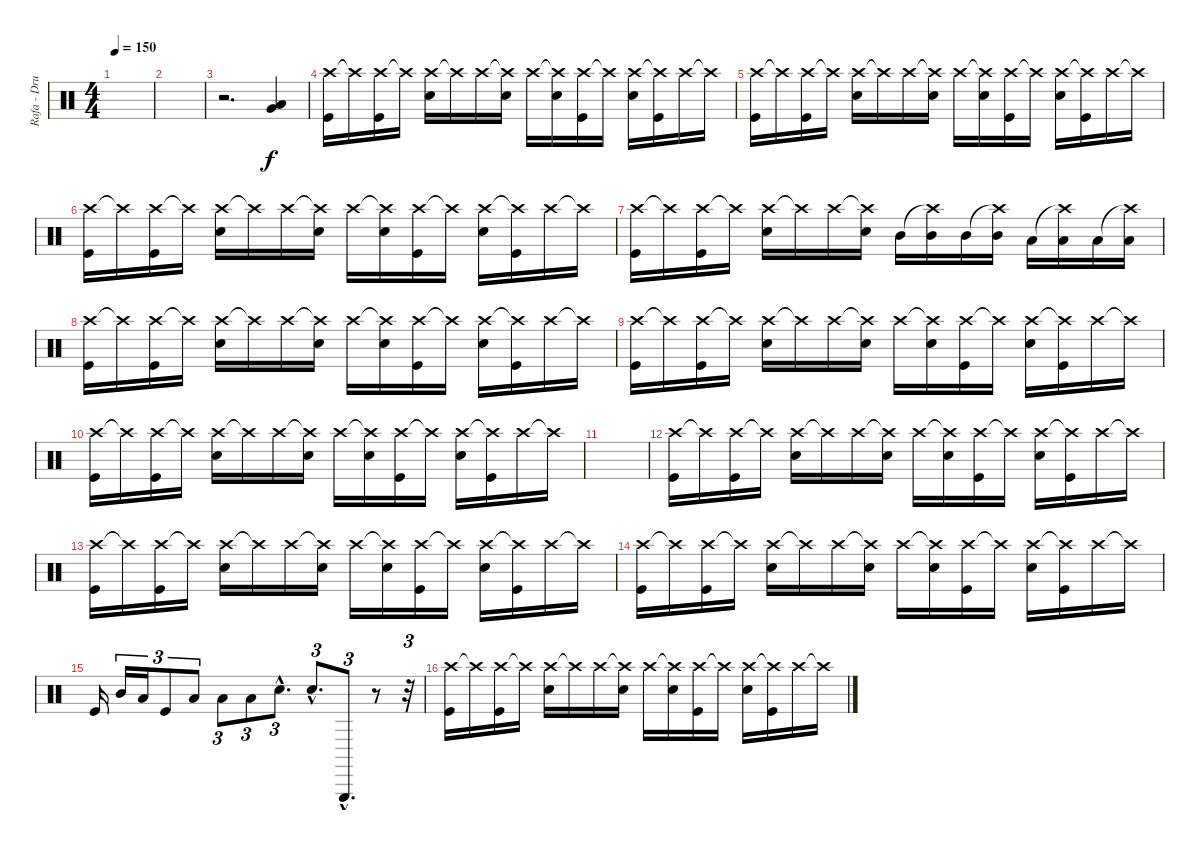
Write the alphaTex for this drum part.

\track ("Rafa - Drums" "Rafa - Dru") {instrument percussion}
\staff {score}
\articulation defaults
\ts (4 4)
\tempo 150
\clef neutral
\ks c
|
|
r.2{d} ("Very Low Tom (hit)" "Low Floor Tom (hit)").4{dy f} |
("Crash high (hit)" "Kick (hit)").16 "Crash high (hit)"{t}.16 ("Crash high (hit)" "Kick (hit)").16 "Crash high (hit)"{t}.16 ("Crash high (hit)" "Electric Snare (hit)").16 "Crash high (hit)"{t}.16 "Crash high (hit)".16 ("Crash high (hit)"{t} "Electric Snare (hit)").16 "Crash high (hit)".16 ("Crash high (hit)"{t} "Electric Snare (hit)").16 ("Crash high (hit)" "Kick (hit)").16 "Crash high (hit)"{t}.16 ("Crash high (hit)" "Electric Snare (hit)").16 ("Crash high (hit)"{t} "Kick (hit)").16 "Crash high (hit)".16 "Crash high (hit)"{t}.16 |
("Crash high (hit)" "Kick (hit)").16 "Crash high (hit)"{t}.16 ("Crash high (hit)" "Kick (hit)").16 "Crash high (hit)"{t}.16 ("Crash high (hit)" "Electric Snare (hit)").16 "Crash high (hit)"{t}.16 "Crash high (hit)".16 ("Crash high (hit)"{t} "Electric Snare (hit)").16 "Crash high (hit)".16 ("Crash high (hit)"{t} "Electric Snare (hit)").16 ("Crash high (hit)" "Kick (hit)").16 "Crash high (hit)"{t}.16 ("Crash high (hit)" "Electric Snare (hit)").16 ("Crash high (hit)"{t} "Kick (hit)").16 "Crash high (hit)".16 "Crash high (hit)"{t}.16 |
("Crash high (hit)" "Kick (hit)").16 "Crash high (hit)"{t}.16 ("Crash high (hit)" "Kick (hit)").16 "Crash high (hit)"{t}.16 ("Crash high (hit)" "Electric Snare (hit)").16 "Crash high (hit)"{t}.16 "Crash high (hit)".16 ("Crash high (hit)"{t} "Electric Snare (hit)").16 "Crash high (hit)".16 ("Crash high (hit)"{t} "Electric Snare (hit)").16 ("Crash high (hit)" "Kick (hit)").16 "Crash high (hit)"{t}.16 ("Crash high (hit)" "Electric Snare (hit)").16 ("Crash high (hit)"{t} "Kick (hit)").16 "Crash high (hit)".16 "Crash high (hit)"{t}.16 |
("Crash high (hit)" "Kick (hit)").16 "Crash high (hit)"{t}.16 ("Crash high (hit)" "Kick (hit)").16 "Crash high (hit)"{t}.16 ("Crash high (hit)" "Electric Snare (hit)").16 "Crash high (hit)"{t}.16 "Crash high (hit)".16 ("Crash high (hit)"{t} "Electric Snare (hit)").16 "Mid Tom (hit)".16 ("Crash high (hit)"{t} "Mid Tom (hit)").16 "Mid Tom (hit)".16 ("Crash high (hit)"{t} "Mid Tom (hit)").16 "Low Tom (hit)".16 ("Crash high (hit)"{t} "Low Tom (hit)").16 "Low Tom (hit)".16 ("Crash high (hit)"{t} "Low Tom (hit)").16 |
("Crash high (hit)" "Kick (hit)").16 "Crash high (hit)"{t}.16 ("Crash high (hit)" "Kick (hit)").16 "Crash high (hit)"{t}.16 ("Crash high (hit)" "Electric Snare (hit)").16 "Crash high (hit)"{t}.16 "Crash high (hit)".16 ("Crash high (hit)"{t} "Electric Snare (hit)").16 "Crash high (hit)".16 ("Crash high (hit)"{t} "Electric Snare (hit)").16 ("Crash high (hit)" "Kick (hit)").16 "Crash high (hit)"{t}.16 ("Crash high (hit)" "Electric Snare (hit)").16 ("Crash high (hit)"{t} "Kick (hit)").16 "Crash high (hit)".16 "Crash high (hit)"{t}.16 |
("Crash high (hit)" "Kick (hit)").16 "Crash high (hit)"{t}.16 ("Crash high (hit)" "Kick (hit)").16 "Crash high (hit)"{t}.16 ("Crash high (hit)" "Electric Snare (hit)").16 "Crash high (hit)"{t}.16 "Crash high (hit)".16 ("Crash high (hit)"{t} "Electric Snare (hit)").16 "Crash high (hit)".16 ("Crash high (hit)"{t} "Electric Snare (hit)").16 ("Crash high (hit)" "Kick (hit)").16 "Crash high (hit)"{t}.16 ("Crash high (hit)" "Electric Snare (hit)").16 ("Crash high (hit)"{t} "Kick (hit)").16 "Crash high (hit)".16 "Crash high (hit)"{t}.16 |
("Crash high (hit)" "Kick (hit)").16 "Crash high (hit)"{t}.16 ("Crash high (hit)" "Kick (hit)").16 "Crash high (hit)"{t}.16 ("Crash high (hit)" "Electric Snare (hit)").16 "Crash high (hit)"{t}.16 "Crash high (hit)".16 ("Crash high (hit)"{t} "Electric Snare (hit)").16 "Crash high (hit)".16 ("Crash high (hit)"{t} "Electric Snare (hit)").16 ("Crash high (hit)" "Kick (hit)").16 "Crash high (hit)"{t}.16 ("Crash high (hit)" "Electric Snare (hit)").16 ("Crash high (hit)"{t} "Kick (hit)").16 "Crash high (hit)".16 "Crash high (hit)"{t}.16 |
|
("Crash high (hit)" "Kick (hit)").16 "Crash high (hit)"{t}.16 ("Crash high (hit)" "Kick (hit)").16 "Crash high (hit)"{t}.16 ("Crash high (hit)" "Electric Snare (hit)").16 "Crash high (hit)"{t}.16 "Crash high (hit)".16 ("Crash high (hit)"{t} "Electric Snare (hit)").16 "Crash high (hit)".16 ("Crash high (hit)"{t} "Electric Snare (hit)").16 ("Crash high (hit)" "Kick (hit)").16 "Crash high (hit)"{t}.16 ("Crash high (hit)" "Electric Snare (hit)").16 ("Crash high (hit)"{t} "Kick (hit)").16 "Crash high (hit)".16 "Crash high (hit)"{t}.16 |
("Crash high (hit)" "Kick (hit)").16 "Crash high (hit)"{t}.16 ("Crash high (hit)" "Kick (hit)").16 "Crash high (hit)"{t}.16 ("Crash high (hit)" "Electric Snare (hit)").16 "Crash high (hit)"{t}.16 "Crash high (hit)".16 ("Crash high (hit)"{t} "Electric Snare (hit)").16 "Crash high (hit)".16 ("Crash high (hit)"{t} "Electric Snare (hit)").16 ("Crash high (hit)" "Kick (hit)").16 "Crash high (hit)"{t}.16 ("Crash high (hit)" "Electric Snare (hit)").16 ("Crash high (hit)"{t} "Kick (hit)").16 "Crash high (hit)".16 "Crash high (hit)"{t}.16 |
("Crash high (hit)" "Kick (hit)").16 "Crash high (hit)"{t}.16 ("Crash high (hit)" "Kick (hit)").16 "Crash high (hit)"{t}.16 ("Crash high (hit)" "Electric Snare (hit)").16 "Crash high (hit)"{t}.16 "Crash high (hit)".16 ("Crash high (hit)"{t} "Electric Snare (hit)").16 "Crash high (hit)".16 ("Crash high (hit)"{t} "Electric Snare (hit)").16 ("Crash high (hit)" "Kick (hit)").16 "Crash high (hit)"{t}.16 ("Crash high (hit)" "Electric Snare (hit)").16 ("Crash high (hit)"{t} "Kick (hit)").16 "Crash high (hit)".16 "Crash high (hit)"{t}.16 |
"Kick (hit)".16 "Mid Tom (hit)".16{tu (3 2)} "Low Tom (hit)".16{tu (3 2)} "Kick (hit)".8{tu (3 2)} "Low Tom (hit)".8{tu (3 2)} "Low Tom (hit)".8{tu (3 2)} "Low Tom (hit)".8{tu (3 2)} "Electric Snare (hit)"{hac}.8{d tu (3 2)} "Electric Snare (hit)"{hac}.8{d tu (3 2)} "Triangle (hit)"{hac}.8{d tu (3 2)} r.8 r.32{tu (3 2)} |
("Crash high (hit)" "Kick (hit)").16 "Crash high (hit)"{t}.16 ("Crash high (hit)" "Kick (hit)").16 "Crash high (hit)"{t}.16 ("Crash high (hit)" "Electric Snare (hit)").16 "Crash high (hit)"{t}.16 "Crash high (hit)".16 ("Crash high (hit)"{t} "Electric Snare (hit)").16 "Crash high (hit)".16 ("Crash high (hit)"{t} "Electric Snare (hit)").16 ("Crash high (hit)" "Kick (hit)").16 "Crash high (hit)"{t}.16 ("Crash high (hit)" "Electric Snare (hit)").16 ("Crash high (hit)"{t} "Kick (hit)").16 "Crash high (hit)".16 "Crash high (hit)"{t}.16
